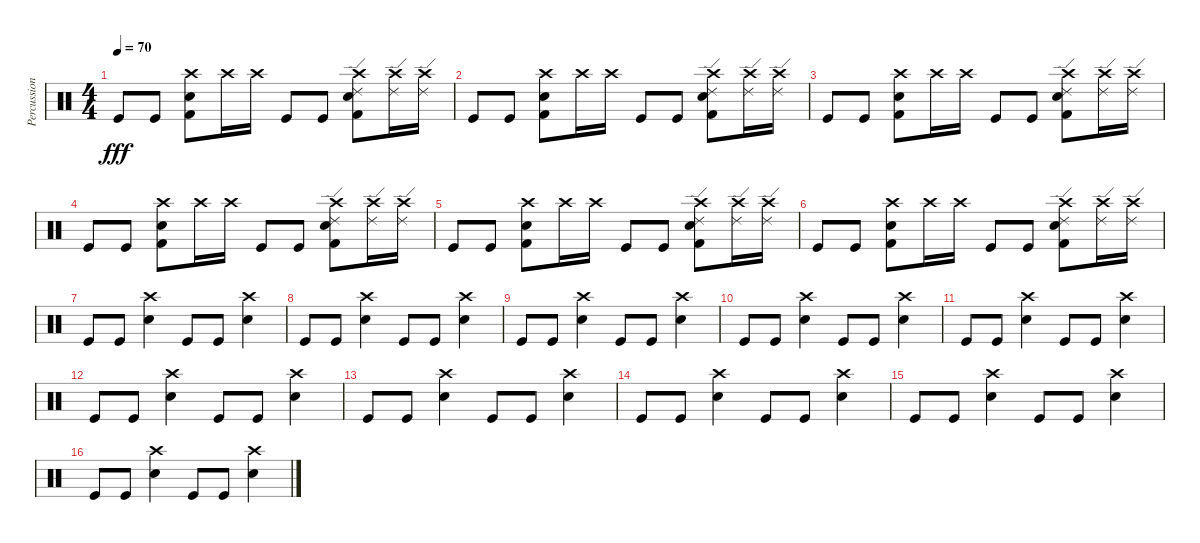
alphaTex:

\track ("Percussion" "Percussion") {instrument percussion}
\staff {score}
\articulation defaults
\ts (4 4)
\tempo 70
\clef neutral
\ks c "Kick (hit)".8{dy fff} "Kick (hit)".8
("Metronome (bell)" "Crash high (hit)" "Kick (hit) 2").8 "Crash high (hit)".16 "Crash high (hit)".16 "Kick (hit)".8 "Kick (hit)".8 ("Metronome (bell)" "Ride (edge) 2" "Kick (hit) 2" "Crash high (hit)").8 ("Ride (edge) 2" "Crash high (hit)").16 ("Ride (edge) 2" "Crash high (hit)").16 |
"Kick (hit)".8 "Kick (hit)".8 ("Metronome (bell)" "Crash high (hit)" "Kick (hit) 2").8 "Crash high (hit)".16 "Crash high (hit)".16 "Kick (hit)".8 "Kick (hit)".8 ("Metronome (bell)" "Ride (edge) 2" "Kick (hit) 2" "Crash high (hit)").8 ("Ride (edge) 2" "Crash high (hit)").16 ("Ride (edge) 2" "Crash high (hit)").16 |
"Kick (hit)".8 "Kick (hit)".8 ("Metronome (bell)" "Crash high (hit)" "Kick (hit) 2").8 "Crash high (hit)".16 "Crash high (hit)".16 "Kick (hit)".8 "Kick (hit)".8 ("Metronome (bell)" "Ride (edge) 2" "Kick (hit) 2" "Crash high (hit)").8 ("Ride (edge) 2" "Crash high (hit)").16 ("Ride (edge) 2" "Crash high (hit)").16 |
"Kick (hit)".8 "Kick (hit)".8 ("Metronome (bell)" "Crash high (hit)" "Kick (hit) 2").8 "Crash high (hit)".16 "Crash high (hit)".16 "Kick (hit)".8 "Kick (hit)".8 ("Metronome (bell)" "Ride (edge) 2" "Kick (hit) 2" "Crash high (hit)").8 ("Ride (edge) 2" "Crash high (hit)").16 ("Ride (edge) 2" "Crash high (hit)").16 |
"Kick (hit)".8 "Kick (hit)".8 ("Metronome (bell)" "Crash high (hit)" "Kick (hit) 2").8 "Crash high (hit)".16 "Crash high (hit)".16 "Kick (hit)".8 "Kick (hit)".8 ("Metronome (bell)" "Ride (edge) 2" "Kick (hit) 2" "Crash high (hit)").8 ("Ride (edge) 2" "Crash high (hit)").16 ("Ride (edge) 2" "Crash high (hit)").16 |
"Kick (hit)".8 "Kick (hit)".8 ("Metronome (bell)" "Crash high (hit)" "Kick (hit) 2").8 "Crash high (hit)".16 "Crash high (hit)".16 "Kick (hit)".8 "Kick (hit)".8 ("Metronome (bell)" "Ride (edge) 2" "Kick (hit) 2" "Crash high (hit)").8 ("Ride (edge) 2" "Crash high (hit)").16 ("Ride (edge) 2" "Crash high (hit)").16 |
"Kick (hit)".8 "Kick (hit)".8 ("Metronome (bell)" "Crash high (hit)").4 "Kick (hit)".8 "Kick (hit)".8 ("Metronome (bell)" "Crash high (hit)").4 |
"Kick (hit)".8 "Kick (hit)".8 ("Metronome (bell)" "Crash high (hit)").4 "Kick (hit)".8 "Kick (hit)".8 ("Metronome (bell)" "Crash high (hit)").4 |
"Kick (hit)".8 "Kick (hit)".8 ("Metronome (bell)" "Crash high (hit)").4 "Kick (hit)".8 "Kick (hit)".8 ("Metronome (bell)" "Crash high (hit)").4 |
"Kick (hit)".8 "Kick (hit)".8 ("Metronome (bell)" "Crash high (hit)").4 "Kick (hit)".8 "Kick (hit)".8 ("Metronome (bell)" "Crash high (hit)").4 |
"Kick (hit)".8 "Kick (hit)".8 ("Metronome (bell)" "Crash high (hit)").4 "Kick (hit)".8 "Kick (hit)".8 ("Metronome (bell)" "Crash high (hit)").4 |
"Kick (hit)".8 "Kick (hit)".8 ("Metronome (bell)" "Crash high (hit)").4 "Kick (hit)".8 "Kick (hit)".8 ("Metronome (bell)" "Crash high (hit)").4 |
"Kick (hit)".8 "Kick (hit)".8 ("Metronome (bell)" "Crash high (hit)").4 "Kick (hit)".8 "Kick (hit)".8 ("Metronome (bell)" "Crash high (hit)").4 |
"Kick (hit)".8 "Kick (hit)".8 ("Metronome (bell)" "Crash high (hit)").4 "Kick (hit)".8 "Kick (hit)".8 ("Metronome (bell)" "Crash high (hit)").4 |
"Kick (hit)".8 "Kick (hit)".8 ("Metronome (bell)" "Crash high (hit)").4 "Kick (hit)".8 "Kick (hit)".8 ("Metronome (bell)" "Crash high (hit)").4 |
"Kick (hit)".8 "Kick (hit)".8 ("Metronome (bell)" "Crash high (hit)").4 "Kick (hit)".8 "Kick (hit)".8 ("Metronome (bell)" "Crash high (hit)").4
